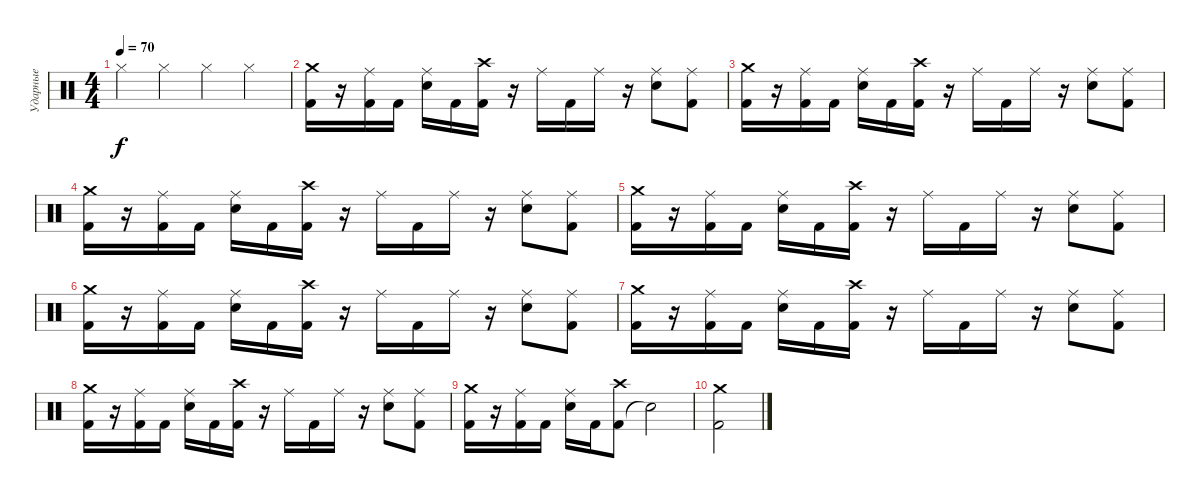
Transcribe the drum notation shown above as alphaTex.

\track ("Ударные" "Ударные") {instrument percussion}
\staff {score}
\articulation defaults
\ts (4 4)
\tempo 70
\clef neutral
\ks c "Hi-Hat (closed)".4{dy f} "Hi-Hat (closed)".4 "Hi-Hat (closed)".4 "Hi-Hat (closed)".4
|
("Crash medium (hit)" "Kick (hit) 2").16 r.16 ("Ride (middle)" "Kick (hit) 2").16 "Kick (hit) 2".16 ("Ride (middle)" "Electric Snare (hit)").16 "Kick (hit) 2".16 ("Kick (hit) 2" "Crash high (hit)").16 r.16 "Ride (middle)".16 "Kick (hit) 2".16 "Ride (middle)".16 r.16 ("Ride (middle)" "Electric Snare (hit)").8 ("Ride (middle)" "Kick (hit) 2").8 |
("Crash medium (hit)" "Kick (hit) 2").16 r.16 ("Ride (middle)" "Kick (hit) 2").16 "Kick (hit) 2".16 ("Ride (middle)" "Electric Snare (hit)").16 "Kick (hit) 2".16 ("Kick (hit) 2" "Crash high (hit)").16 r.16 "Ride (middle)".16 "Kick (hit) 2".16 "Ride (middle)".16 r.16 ("Ride (middle)" "Electric Snare (hit)").8 ("Ride (middle)" "Kick (hit) 2").8 |
("Crash medium (hit)" "Kick (hit) 2").16 r.16 ("Ride (middle)" "Kick (hit) 2").16 "Kick (hit) 2".16 ("Ride (middle)" "Electric Snare (hit)").16 "Kick (hit) 2".16 ("Kick (hit) 2" "Crash high (hit)").16 r.16 "Ride (middle)".16 "Kick (hit) 2".16 "Ride (middle)".16 r.16 ("Ride (middle)" "Electric Snare (hit)").8 ("Ride (middle)" "Kick (hit) 2").8 |
("Crash medium (hit)" "Kick (hit) 2").16 r.16 ("Ride (middle)" "Kick (hit) 2").16 "Kick (hit) 2".16 ("Ride (middle)" "Electric Snare (hit)").16 "Kick (hit) 2".16 ("Kick (hit) 2" "Crash high (hit)").16 r.16 "Ride (middle)".16 "Kick (hit) 2".16 "Ride (middle)".16 r.16 ("Ride (middle)" "Electric Snare (hit)").8 ("Ride (middle)" "Kick (hit) 2").8 |
("Crash medium (hit)" "Kick (hit) 2").16 r.16 ("Ride (middle)" "Kick (hit) 2").16 "Kick (hit) 2".16 ("Ride (middle)" "Electric Snare (hit)").16 "Kick (hit) 2".16 ("Kick (hit) 2" "Crash high (hit)").16 r.16 "Ride (middle)".16 "Kick (hit) 2".16 "Ride (middle)".16 r.16 ("Ride (middle)" "Electric Snare (hit)").8 ("Ride (middle)" "Kick (hit) 2").8 |
("Crash medium (hit)" "Kick (hit) 2").16 r.16 ("Ride (middle)" "Kick (hit) 2").16 "Kick (hit) 2".16 ("Ride (middle)" "Electric Snare (hit)").16 "Kick (hit) 2".16 ("Kick (hit) 2" "Crash high (hit)").16 r.16 "Ride (middle)".16 "Kick (hit) 2".16 "Ride (middle)".16 r.16 ("Ride (middle)" "Electric Snare (hit)").8 ("Ride (middle)" "Kick (hit) 2").8 |
("Crash medium (hit)" "Kick (hit) 2").16 r.16 ("Ride (middle)" "Kick (hit) 2").16 "Kick (hit) 2".16 ("Ride (middle)" "Electric Snare (hit)").16 "Kick (hit) 2".16 ("Kick (hit) 2" "Crash high (hit)").16 r.16 "Ride (middle)".16 "Kick (hit) 2".16 "Ride (middle)".16 r.16 ("Ride (middle)" "Electric Snare (hit)").8 ("Ride (middle)" "Kick (hit) 2").8 |
("Crash medium (hit)" "Kick (hit) 2").16 r.16 ("Ride (middle)" "Kick (hit) 2").16 "Kick (hit) 2".16 ("Ride (middle)" "Electric Snare (hit)").16 "Kick (hit) 2".16 ("Kick (hit) 2" "Crash high (hit)").8 "Snare (hit)"{t}.2 |
("Kick (hit) 2" "Crash medium (hit)").2
